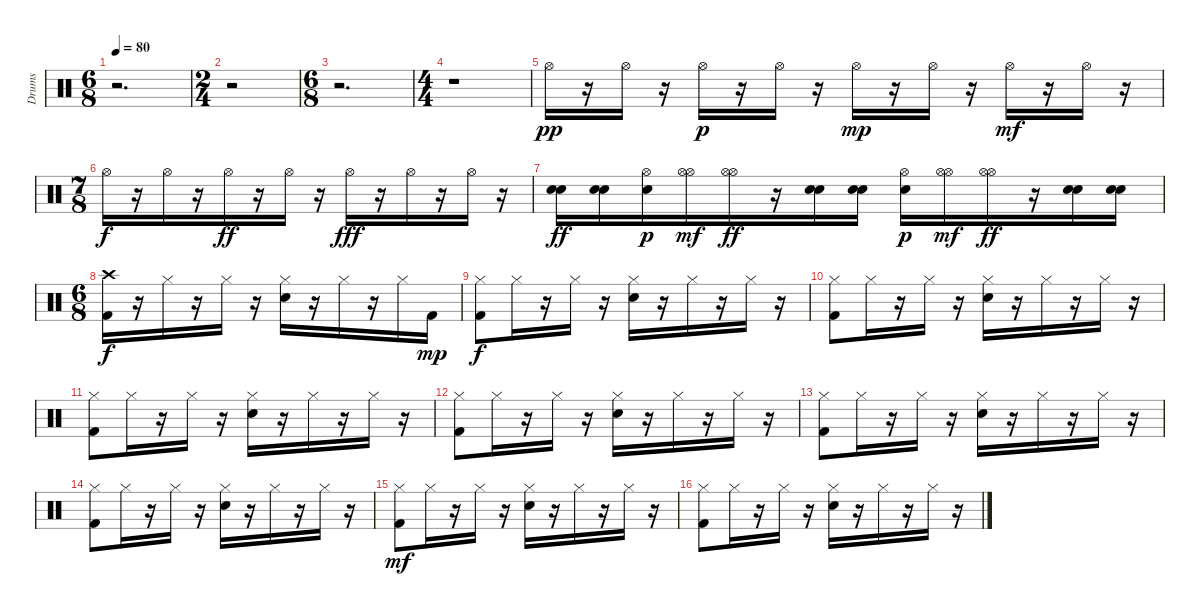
\track ("Drums" "Drums") {instrument percussion}
\staff {score}
\articulation defaults
\ts (6 8)
\tempo 80
\clef neutral
\ks c
r.2{d dy ppp} |
\ts (2 4)
r.2 |
\ts (6 8)
r.2{d} |
\ts (4 4)
r.1 |
"Hi-Hat (open)".16{dy pp} r.16 "Hi-Hat (open)".16 r.16 "Hi-Hat (open)".16{dy p} r.16 "Hi-Hat (open)".16 r.16 "Hi-Hat (open)".16{dy mp} r.16 "Hi-Hat (open)".16 r.16 "Hi-Hat (open)".16{dy mf} r.16 "Hi-Hat (open)".16 r.16 |
\ts (7 8)
"Hi-Hat (open)".16{dy f} r.16 "Hi-Hat (open)".16 r.16 "Hi-Hat (open)".16{dy ff} r.16 "Hi-Hat (open)".16 r.16 "Hi-Hat (open)".16{dy fff} r.16 "Hi-Hat (open)".16 r.16 "Hi-Hat (open)".16 r.16 |
("Snare (hit) 2" "Snare (hit) 2").16{dy ff} ("Snare (hit) 2" "Snare (hit) 2").16 ("Snare (hit) 2" "Hi-Hat (open)").16{dy p} ("Hi-Hat (open)" "Hi-Hat (open)").16{dy mf} ("Hi-Hat (open)" "Hi-Hat (open)").16{dy ff} r.16 ("Snare (hit) 2" "Snare (hit) 2").16 ("Snare (hit) 2" "Snare (hit) 2").16 ("Snare (hit) 2" "Hi-Hat (open)").16{dy p} ("Hi-Hat (open)" "Hi-Hat (open)").16{dy mf} ("Hi-Hat (open)" "Hi-Hat (open)").16{dy ff} r.16 ("Snare (hit) 2" "Snare (hit) 2").16 ("Snare (hit) 2" "Snare (hit) 2").16 |
\ts (6 8)
("Kick (hit) 2" "Crash high (hit)").16{dy f} r.16 "Hi-Hat (closed)".16 r.16 "Hi-Hat (closed)".16 r.16 ("Snare (hit) 2" "Hi-Hat (closed)").16 r.16 "Hi-Hat (closed)".16 r.16 "Hi-Hat (closed)".16 "Kick (hit) 2".16{dy mp} |
("Kick (hit) 2" "Hi-Hat (closed)").8{dy f} "Hi-Hat (closed)".16 r.16 "Hi-Hat (closed)".16 r.16 ("Snare (hit) 2" "Hi-Hat (closed)").16 r.16 "Hi-Hat (closed)".16 r.16 "Hi-Hat (closed)".16 r.16 |
("Kick (hit) 2" "Hi-Hat (closed)").8 "Hi-Hat (closed)".16 r.16 "Hi-Hat (closed)".16 r.16 ("Snare (hit) 2" "Hi-Hat (closed)").16 r.16 "Hi-Hat (closed)".16 r.16 "Hi-Hat (closed)".16 r.16 |
("Kick (hit) 2" "Hi-Hat (closed)").8 "Hi-Hat (closed)".16 r.16 "Hi-Hat (closed)".16 r.16 ("Snare (hit) 2" "Hi-Hat (closed)").16 r.16 "Hi-Hat (closed)".16 r.16 "Hi-Hat (closed)".16 r.16 |
("Kick (hit) 2" "Hi-Hat (closed)").8 "Hi-Hat (closed)".16 r.16 "Hi-Hat (closed)".16 r.16 ("Snare (hit) 2" "Hi-Hat (closed)").16 r.16 "Hi-Hat (closed)".16 r.16 "Hi-Hat (closed)".16 r.16 |
("Kick (hit) 2" "Hi-Hat (closed)").8 "Hi-Hat (closed)".16 r.16 "Hi-Hat (closed)".16 r.16 ("Snare (hit) 2" "Hi-Hat (closed)").16 r.16 "Hi-Hat (closed)".16 r.16 "Hi-Hat (closed)".16 r.16 |
("Kick (hit) 2" "Hi-Hat (closed)").8 "Hi-Hat (closed)".16 r.16 "Hi-Hat (closed)".16 r.16 ("Snare (hit) 2" "Hi-Hat (closed)").16 r.16 "Hi-Hat (closed)".16 r.16 "Hi-Hat (closed)".16 r.16 |
("Kick (hit) 2" "Hi-Hat (closed)").8{dy mf} "Hi-Hat (closed)".16 r.16 "Hi-Hat (closed)".16 r.16 ("Snare (hit) 2" "Hi-Hat (closed)").16 r.16 "Hi-Hat (closed)".16 r.16 "Hi-Hat (closed)".16 r.16 |
("Kick (hit) 2" "Hi-Hat (closed)").8 "Hi-Hat (closed)".16 r.16 "Hi-Hat (closed)".16 r.16 ("Snare (hit) 2" "Hi-Hat (closed)").16 r.16 "Hi-Hat (closed)".16 r.16 "Hi-Hat (closed)".16 r.16
